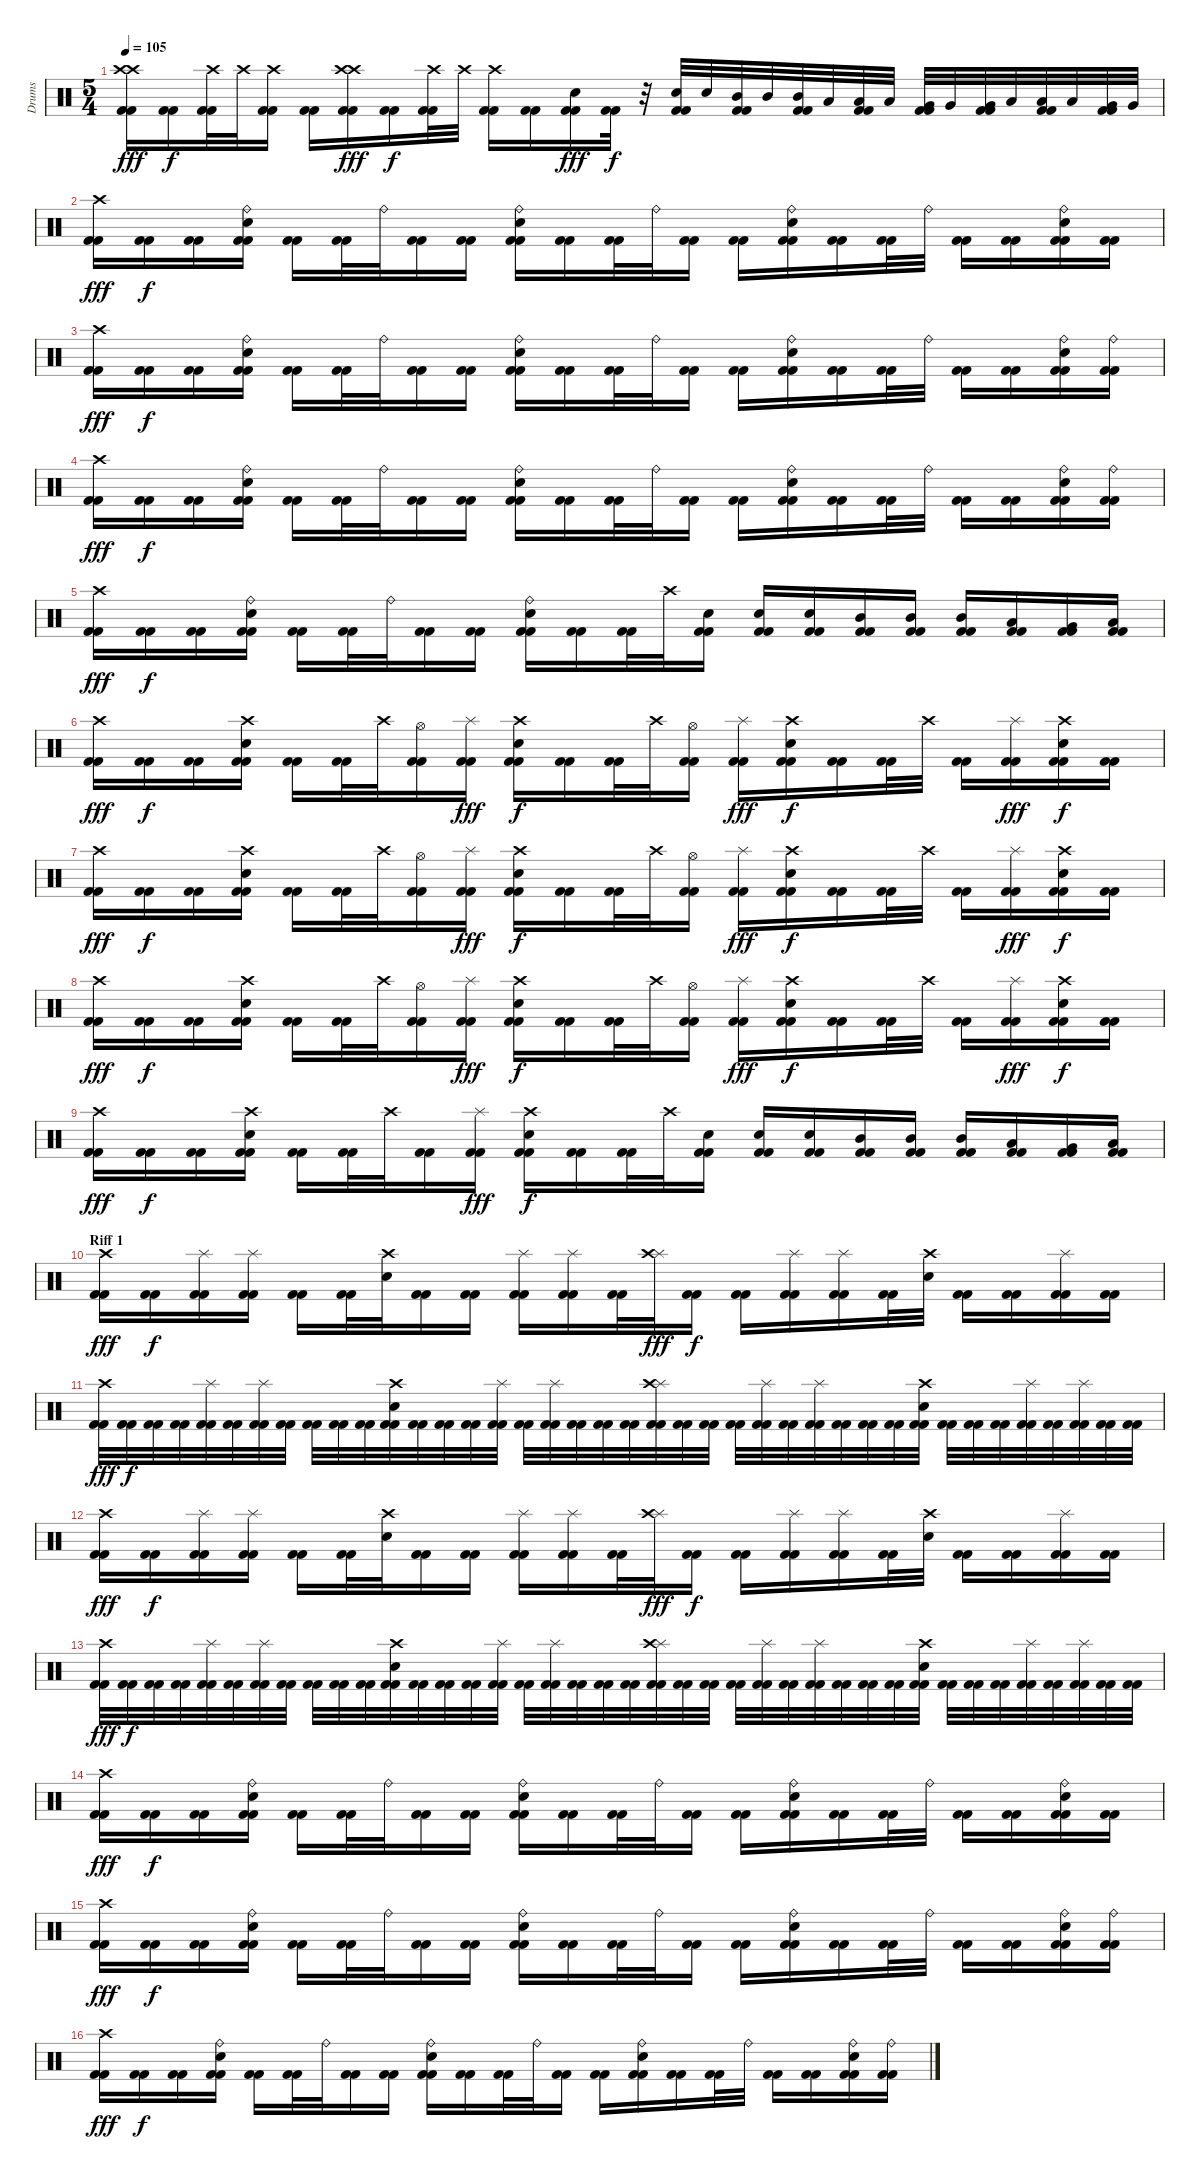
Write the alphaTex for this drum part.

\track ("Drums" "Drums") {instrument percussion}
\staff {score}
\articulation defaults
\ts (5 4)
\tempo 105
\clef neutral
\ks c
("Crash high (hit)" "Crash high (hit)" "Kick (hit) 2" "Kick (hit) 2").16{dy fff} ("Kick (hit) 2" "Kick (hit) 2").16{dy f} ("Crash high (hit)" "Kick (hit) 2" "Kick (hit) 2").32 "Crash high (hit)".32 ("Crash high (hit)" "Kick (hit) 2" "Kick (hit) 2").16 ("Kick (hit) 2" "Kick (hit) 2").16 ("Crash high (hit)" "Crash high (hit)" "Kick (hit) 2" "Kick (hit) 2").16{dy fff} ("Kick (hit) 2" "Kick (hit) 2").16{dy f} ("Crash high (hit)" "Kick (hit) 2" "Kick (hit) 2").32 "Crash high (hit)".32 ("Crash high (hit)" "Kick (hit) 2" "Kick (hit) 2").16 ("Kick (hit) 2" "Kick (hit) 2").16 ("Electric Snare (hit)" "Kick (hit) 2" "Kick (hit) 2").16{dy fff} ("Kick (hit) 2" "Kick (hit) 2").32{dy f} r.32 ("Electric Snare (hit)" "Kick (hit) 2" "Kick (hit) 2").32 "Electric Snare (hit)".32 ("Mid Tom (hit)" "Kick (hit) 2" "Kick (hit) 2").32 "Mid Tom (hit)".32 ("Mid Tom (hit)" "Kick (hit) 2" "Kick (hit) 2").32 "Low Tom (hit)".32 ("Low Tom (hit)" "Kick (hit) 2" "Kick (hit) 2").32 "Low Tom (hit)".32 ("Very Low Tom (hit)" "Kick (hit) 2" "Kick (hit) 2").32 "Very Low Tom (hit)".32 ("Very Low Tom (hit)" "Kick (hit) 2" "Kick (hit) 2").32 "Low Floor Tom (hit)".32 ("Low Floor Tom (hit)" "Kick (hit) 2" "Kick (hit) 2").32 "Low Floor Tom (hit)".32 ("Very Low Tom (hit)" "Kick (hit) 2" "Kick (hit) 2").32 "Very Low Tom (hit)".32 |
("Crash high (hit)" "Kick (hit) 2" "Kick (hit) 2").16{dy fff} ("Kick (hit) 2" "Kick (hit) 2").16{dy f} ("Kick (hit) 2" "Kick (hit) 2").16 ("Ride (bell)" "Electric Snare (hit)" "Kick (hit) 2" "Kick (hit) 2").16 ("Kick (hit) 2" "Kick (hit) 2").16 ("Kick (hit) 2" "Kick (hit) 2").32 "Ride (bell)".32 ("Kick (hit) 2" "Kick (hit) 2").16 ("Kick (hit) 2" "Kick (hit) 2").16 ("Ride (bell)" "Electric Snare (hit)" "Kick (hit) 2" "Kick (hit) 2").16 ("Kick (hit) 2" "Kick (hit) 2").16 ("Kick (hit) 2" "Kick (hit) 2").32 "Ride (bell)".32 ("Kick (hit) 2" "Kick (hit) 2").16 ("Kick (hit) 2" "Kick (hit) 2").16 ("Ride (bell)" "Electric Snare (hit)" "Kick (hit) 2" "Kick (hit) 2").16 ("Kick (hit) 2" "Kick (hit) 2").16 ("Kick (hit) 2" "Kick (hit) 2").32 "Ride (bell)".32 ("Kick (hit) 2" "Kick (hit) 2").16 ("Kick (hit) 2" "Kick (hit) 2").16 ("Ride (bell)" "Electric Snare (hit)" "Kick (hit) 2" "Kick (hit) 2").16 ("Kick (hit) 2" "Kick (hit) 2").16 |
("Crash high (hit)" "Kick (hit) 2" "Kick (hit) 2").16{dy fff} ("Kick (hit) 2" "Kick (hit) 2").16{dy f} ("Kick (hit) 2" "Kick (hit) 2").16 ("Ride (bell)" "Electric Snare (hit)" "Kick (hit) 2" "Kick (hit) 2").16 ("Kick (hit) 2" "Kick (hit) 2").16 ("Kick (hit) 2" "Kick (hit) 2").32 "Ride (bell)".32 ("Kick (hit) 2" "Kick (hit) 2").16 ("Kick (hit) 2" "Kick (hit) 2").16 ("Ride (bell)" "Electric Snare (hit)" "Kick (hit) 2" "Kick (hit) 2").16 ("Kick (hit) 2" "Kick (hit) 2").16 ("Kick (hit) 2" "Kick (hit) 2").32 "Ride (bell)".32 ("Kick (hit) 2" "Kick (hit) 2").16 ("Kick (hit) 2" "Kick (hit) 2").16 ("Ride (bell)" "Electric Snare (hit)" "Kick (hit) 2" "Kick (hit) 2").16 ("Kick (hit) 2" "Kick (hit) 2").16 ("Kick (hit) 2" "Kick (hit) 2").32 "Ride (bell)".32 ("Kick (hit) 2" "Kick (hit) 2").16 ("Kick (hit) 2" "Kick (hit) 2").16 ("Ride (bell)" "Electric Snare (hit)" "Kick (hit) 2" "Kick (hit) 2").16 ("Ride (bell)" "Kick (hit) 2" "Kick (hit) 2").16 |
("Crash high (hit)" "Kick (hit) 2" "Kick (hit) 2").16{dy fff} ("Kick (hit) 2" "Kick (hit) 2").16{dy f} ("Kick (hit) 2" "Kick (hit) 2").16 ("Ride (bell)" "Electric Snare (hit)" "Kick (hit) 2" "Kick (hit) 2").16 ("Kick (hit) 2" "Kick (hit) 2").16 ("Kick (hit) 2" "Kick (hit) 2").32 "Ride (bell)".32 ("Kick (hit) 2" "Kick (hit) 2").16 ("Kick (hit) 2" "Kick (hit) 2").16 ("Ride (bell)" "Electric Snare (hit)" "Kick (hit) 2" "Kick (hit) 2").16 ("Kick (hit) 2" "Kick (hit) 2").16 ("Kick (hit) 2" "Kick (hit) 2").32 "Ride (bell)".32 ("Kick (hit) 2" "Kick (hit) 2").16 ("Kick (hit) 2" "Kick (hit) 2").16 ("Ride (bell)" "Electric Snare (hit)" "Kick (hit) 2" "Kick (hit) 2").16 ("Kick (hit) 2" "Kick (hit) 2").16 ("Kick (hit) 2" "Kick (hit) 2").32 "Ride (bell)".32 ("Kick (hit) 2" "Kick (hit) 2").16 ("Kick (hit) 2" "Kick (hit) 2").16 ("Ride (bell)" "Electric Snare (hit)" "Kick (hit) 2" "Kick (hit) 2").16 ("Ride (bell)" "Kick (hit) 2" "Kick (hit) 2").16 |
("Crash high (hit)" "Kick (hit) 2" "Kick (hit) 2").16{dy fff} ("Kick (hit) 2" "Kick (hit) 2").16{dy f} ("Kick (hit) 2" "Kick (hit) 2").16 ("Ride (bell)" "Electric Snare (hit)" "Kick (hit) 2" "Kick (hit) 2").16 ("Kick (hit) 2" "Kick (hit) 2").16 ("Kick (hit) 2" "Kick (hit) 2").32 "Ride (bell)".32 ("Kick (hit) 2" "Kick (hit) 2").16 ("Kick (hit) 2" "Kick (hit) 2").16 ("Ride (bell)" "Electric Snare (hit)" "Kick (hit) 2" "Kick (hit) 2").16 ("Kick (hit) 2" "Kick (hit) 2").16 ("Kick (hit) 2" "Kick (hit) 2").32 "Crash high (hit)".32 ("Electric Snare (hit)" "Kick (hit) 2" "Kick (hit) 2").16 ("Electric Snare (hit)" "Kick (hit) 2" "Kick (hit) 2").16 ("Electric Snare (hit)" "Kick (hit) 2" "Kick (hit) 2").16 ("Mid Tom (hit)" "Kick (hit) 2" "Kick (hit) 2").16 ("Mid Tom (hit)" "Kick (hit) 2" "Kick (hit) 2").16 ("Mid Tom (hit)" "Kick (hit) 2" "Kick (hit) 2").16 ("Low Tom (hit)" "Kick (hit) 2" "Kick (hit) 2").16 ("Very Low Tom (hit)" "Kick (hit) 2" "Kick (hit) 2").16 ("Low Floor Tom (hit)" "Kick (hit) 2" "Kick (hit) 2").16 |
("Crash high (hit)" "Kick (hit) 2" "Kick (hit) 2").16{dy fff} ("Kick (hit) 2" "Kick (hit) 2").16{dy f} ("Kick (hit) 2" "Kick (hit) 2").16 ("Crash high (hit)" "Electric Snare (hit)" "Kick (hit) 2" "Kick (hit) 2").16 ("Kick (hit) 2" "Kick (hit) 2").16 ("Kick (hit) 2" "Kick (hit) 2").32 "Crash high (hit)".32 ("Hi-Hat (open)" "Kick (hit) 2" "Kick (hit) 2").16 ("Splash (hit)" "Kick (hit) 2" "Kick (hit) 2").16{dy fff} ("Crash high (hit)" "Electric Snare (hit)" "Kick (hit) 2" "Kick (hit) 2").16{dy f} ("Kick (hit) 2" "Kick (hit) 2").16 ("Kick (hit) 2" "Kick (hit) 2").32 "Crash high (hit)".32 ("Hi-Hat (open)" "Kick (hit) 2" "Kick (hit) 2").16 ("Splash (hit)" "Kick (hit) 2" "Kick (hit) 2").16{dy fff} ("Crash high (hit)" "Electric Snare (hit)" "Kick (hit) 2" "Kick (hit) 2").16{dy f} ("Kick (hit) 2" "Kick (hit) 2").16 ("Kick (hit) 2" "Kick (hit) 2").32 "Crash high (hit)".32 ("Kick (hit) 2" "Kick (hit) 2").16 ("Splash (hit)" "Kick (hit) 2" "Kick (hit) 2").16{dy fff} ("Crash high (hit)" "Electric Snare (hit)" "Kick (hit) 2" "Kick (hit) 2").16{dy f} ("Kick (hit) 2" "Kick (hit) 2").16 |
("Crash high (hit)" "Kick (hit) 2" "Kick (hit) 2").16{dy fff} ("Kick (hit) 2" "Kick (hit) 2").16{dy f} ("Kick (hit) 2" "Kick (hit) 2").16 ("Crash high (hit)" "Electric Snare (hit)" "Kick (hit) 2" "Kick (hit) 2").16 ("Kick (hit) 2" "Kick (hit) 2").16 ("Kick (hit) 2" "Kick (hit) 2").32 "Crash high (hit)".32 ("Hi-Hat (open)" "Kick (hit) 2" "Kick (hit) 2").16 ("Splash (hit)" "Kick (hit) 2" "Kick (hit) 2").16{dy fff} ("Crash high (hit)" "Electric Snare (hit)" "Kick (hit) 2" "Kick (hit) 2").16{dy f} ("Kick (hit) 2" "Kick (hit) 2").16 ("Kick (hit) 2" "Kick (hit) 2").32 "Crash high (hit)".32 ("Hi-Hat (open)" "Kick (hit) 2" "Kick (hit) 2").16 ("Splash (hit)" "Kick (hit) 2" "Kick (hit) 2").16{dy fff} ("Crash high (hit)" "Electric Snare (hit)" "Kick (hit) 2" "Kick (hit) 2").16{dy f} ("Kick (hit) 2" "Kick (hit) 2").16 ("Kick (hit) 2" "Kick (hit) 2").32 "Crash high (hit)".32 ("Kick (hit) 2" "Kick (hit) 2").16 ("Splash (hit)" "Kick (hit) 2" "Kick (hit) 2").16{dy fff} ("Crash high (hit)" "Electric Snare (hit)" "Kick (hit) 2" "Kick (hit) 2").16{dy f} ("Kick (hit) 2" "Kick (hit) 2").16 |
("Crash high (hit)" "Kick (hit) 2" "Kick (hit) 2").16{dy fff} ("Kick (hit) 2" "Kick (hit) 2").16{dy f} ("Kick (hit) 2" "Kick (hit) 2").16 ("Crash high (hit)" "Electric Snare (hit)" "Kick (hit) 2" "Kick (hit) 2").16 ("Kick (hit) 2" "Kick (hit) 2").16 ("Kick (hit) 2" "Kick (hit) 2").32 "Crash high (hit)".32 ("Hi-Hat (open)" "Kick (hit) 2" "Kick (hit) 2").16 ("Splash (hit)" "Kick (hit) 2" "Kick (hit) 2").16{dy fff} ("Crash high (hit)" "Electric Snare (hit)" "Kick (hit) 2" "Kick (hit) 2").16{dy f} ("Kick (hit) 2" "Kick (hit) 2").16 ("Kick (hit) 2" "Kick (hit) 2").32 "Crash high (hit)".32 ("Hi-Hat (open)" "Kick (hit) 2" "Kick (hit) 2").16 ("Splash (hit)" "Kick (hit) 2" "Kick (hit) 2").16{dy fff} ("Crash high (hit)" "Electric Snare (hit)" "Kick (hit) 2" "Kick (hit) 2").16{dy f} ("Kick (hit) 2" "Kick (hit) 2").16 ("Kick (hit) 2" "Kick (hit) 2").32 "Crash high (hit)".32 ("Kick (hit) 2" "Kick (hit) 2").16 ("Splash (hit)" "Kick (hit) 2" "Kick (hit) 2").16{dy fff} ("Crash high (hit)" "Electric Snare (hit)" "Kick (hit) 2" "Kick (hit) 2").16{dy f} ("Kick (hit) 2" "Kick (hit) 2").16 |
("Crash high (hit)" "Kick (hit) 2" "Kick (hit) 2").16{dy fff} ("Kick (hit) 2" "Kick (hit) 2").16{dy f} ("Kick (hit) 2" "Kick (hit) 2").16 ("Crash high (hit)" "Electric Snare (hit)" "Kick (hit) 2" "Kick (hit) 2").16 ("Kick (hit) 2" "Kick (hit) 2").16 ("Kick (hit) 2" "Kick (hit) 2").32 "Crash high (hit)".32 ("Kick (hit) 2" "Kick (hit) 2").16 ("Splash (hit)" "Kick (hit) 2" "Kick (hit) 2").16{dy fff} ("Crash high (hit)" "Electric Snare (hit)" "Kick (hit) 2" "Kick (hit) 2").16{dy f} ("Kick (hit) 2" "Kick (hit) 2").16 ("Kick (hit) 2" "Kick (hit) 2").32 "Crash high (hit)".32 ("Electric Snare (hit)" "Kick (hit) 2" "Kick (hit) 2").16 ("Electric Snare (hit)" "Kick (hit) 2" "Kick (hit) 2").16 ("Electric Snare (hit)" "Kick (hit) 2" "Kick (hit) 2").16 ("Mid Tom (hit)" "Kick (hit) 2" "Kick (hit) 2").16 ("Mid Tom (hit)" "Kick (hit) 2" "Kick (hit) 2").16 ("Mid Tom (hit)" "Kick (hit) 2" "Kick (hit) 2").16 ("Low Tom (hit)" "Kick (hit) 2" "Kick (hit) 2").16 ("Very Low Tom (hit)" "Kick (hit) 2" "Kick (hit) 2").16 ("Low Floor Tom (hit)" "Kick (hit) 2" "Kick (hit) 2").16 |
\section ("" "Riff 1")
("Crash high (hit)" "Kick (hit) 2" "Kick (hit) 2").16{dy fff} ("Kick (hit) 2" "Kick (hit) 2").16{dy f} ("Splash (hit)" "Kick (hit) 2" "Kick (hit) 2").16 ("Splash (hit)" "Kick (hit) 2" "Kick (hit) 2").16 ("Kick (hit) 2" "Kick (hit) 2").16 ("Kick (hit) 2" "Kick (hit) 2").32 ("Crash high (hit)" "Electric Snare (hit)").32 ("Kick (hit) 2" "Kick (hit) 2").16 ("Kick (hit) 2" "Kick (hit) 2").16 ("Splash (hit)" "Kick (hit) 2" "Kick (hit) 2").16 ("Splash (hit)" "Kick (hit) 2" "Kick (hit) 2").16 ("Kick (hit) 2" "Kick (hit) 2").32 ("Splash (hit)" "Crash high (hit)").32{dy fff} ("Kick (hit) 2" "Kick (hit) 2").16{dy f} ("Kick (hit) 2" "Kick (hit) 2").16 ("Splash (hit)" "Kick (hit) 2" "Kick (hit) 2").16 ("Splash (hit)" "Kick (hit) 2" "Kick (hit) 2").16 ("Kick (hit) 2" "Kick (hit) 2").32 ("Crash high (hit)" "Electric Snare (hit)").32 ("Kick (hit) 2" "Kick (hit) 2").16 ("Kick (hit) 2" "Kick (hit) 2").16 ("Splash (hit)" "Kick (hit) 2" "Kick (hit) 2").16 ("Kick (hit) 2" "Kick (hit) 2").16 |
("Crash high (hit)" "Kick (hit) 2" "Kick (hit) 2").32{dy fff} ("Kick (hit) 2" "Kick (hit) 2").32{dy f} ("Kick (hit) 2" "Kick (hit) 2").32 ("Kick (hit) 2" "Kick (hit) 2").32 ("Splash (hit)" "Kick (hit) 2" "Kick (hit) 2").32 ("Kick (hit) 2" "Kick (hit) 2").32 ("Splash (hit)" "Kick (hit) 2" "Kick (hit) 2").32 ("Kick (hit) 2" "Kick (hit) 2").32 ("Kick (hit) 2" "Kick (hit) 2").32 ("Kick (hit) 2" "Kick (hit) 2").32 ("Kick (hit) 2" "Kick (hit) 2").32 ("Crash high (hit)" "Electric Snare (hit)" "Kick (hit) 2" "Kick (hit) 2").32 ("Kick (hit) 2" "Kick (hit) 2").32 ("Kick (hit) 2" "Kick (hit) 2").32 ("Kick (hit) 2" "Kick (hit) 2").32 ("Splash (hit)" "Kick (hit) 2" "Kick (hit) 2").32 ("Kick (hit) 2" "Kick (hit) 2").32 ("Splash (hit)" "Kick (hit) 2" "Kick (hit) 2").32 ("Kick (hit) 2" "Kick (hit) 2").32 ("Kick (hit) 2" "Kick (hit) 2").32 ("Kick (hit) 2" "Kick (hit) 2").32 ("Splash (hit)" "Crash high (hit)" "Kick (hit) 2" "Kick (hit) 2").32 ("Kick (hit) 2" "Kick (hit) 2").32 ("Kick (hit) 2" "Kick (hit) 2").32 ("Kick (hit) 2" "Kick (hit) 2").32 ("Splash (hit)" "Kick (hit) 2" "Kick (hit) 2").32 ("Kick (hit) 2" "Kick (hit) 2").32 ("Splash (hit)" "Kick (hit) 2" "Kick (hit) 2").32 ("Kick (hit) 2" "Kick (hit) 2").32 ("Kick (hit) 2" "Kick (hit) 2").32 ("Kick (hit) 2" "Kick (hit) 2").32 ("Crash high (hit)" "Electric Snare (hit)" "Kick (hit) 2" "Kick (hit) 2").32 ("Kick (hit) 2" "Kick (hit) 2").32 ("Kick (hit) 2" "Kick (hit) 2").32 ("Kick (hit) 2" "Kick (hit) 2").32 ("Splash (hit)" "Kick (hit) 2" "Kick (hit) 2").32 ("Kick (hit) 2" "Kick (hit) 2").32 ("Splash (hit)" "Kick (hit) 2" "Kick (hit) 2").32 ("Kick (hit) 2" "Kick (hit) 2").32 ("Kick (hit) 2" "Kick (hit) 2").32 |
("Crash high (hit)" "Kick (hit) 2" "Kick (hit) 2").16{dy fff} ("Kick (hit) 2" "Kick (hit) 2").16{dy f} ("Splash (hit)" "Kick (hit) 2" "Kick (hit) 2").16 ("Splash (hit)" "Kick (hit) 2" "Kick (hit) 2").16 ("Kick (hit) 2" "Kick (hit) 2").16 ("Kick (hit) 2" "Kick (hit) 2").32 ("Crash high (hit)" "Electric Snare (hit)").32 ("Kick (hit) 2" "Kick (hit) 2").16 ("Kick (hit) 2" "Kick (hit) 2").16 ("Splash (hit)" "Kick (hit) 2" "Kick (hit) 2").16 ("Splash (hit)" "Kick (hit) 2" "Kick (hit) 2").16 ("Kick (hit) 2" "Kick (hit) 2").32 ("Splash (hit)" "Crash high (hit)").32{dy fff} ("Kick (hit) 2" "Kick (hit) 2").16{dy f} ("Kick (hit) 2" "Kick (hit) 2").16 ("Splash (hit)" "Kick (hit) 2" "Kick (hit) 2").16 ("Splash (hit)" "Kick (hit) 2" "Kick (hit) 2").16 ("Kick (hit) 2" "Kick (hit) 2").32 ("Crash high (hit)" "Electric Snare (hit)").32 ("Kick (hit) 2" "Kick (hit) 2").16 ("Kick (hit) 2" "Kick (hit) 2").16 ("Splash (hit)" "Kick (hit) 2" "Kick (hit) 2").16 ("Kick (hit) 2" "Kick (hit) 2").16 |
("Crash high (hit)" "Kick (hit) 2" "Kick (hit) 2").32{dy fff} ("Kick (hit) 2" "Kick (hit) 2").32{dy f} ("Kick (hit) 2" "Kick (hit) 2").32 ("Kick (hit) 2" "Kick (hit) 2").32 ("Splash (hit)" "Kick (hit) 2" "Kick (hit) 2").32 ("Kick (hit) 2" "Kick (hit) 2").32 ("Splash (hit)" "Kick (hit) 2" "Kick (hit) 2").32 ("Kick (hit) 2" "Kick (hit) 2").32 ("Kick (hit) 2" "Kick (hit) 2").32 ("Kick (hit) 2" "Kick (hit) 2").32 ("Kick (hit) 2" "Kick (hit) 2").32 ("Crash high (hit)" "Electric Snare (hit)" "Kick (hit) 2" "Kick (hit) 2").32 ("Kick (hit) 2" "Kick (hit) 2").32 ("Kick (hit) 2" "Kick (hit) 2").32 ("Kick (hit) 2" "Kick (hit) 2").32 ("Splash (hit)" "Kick (hit) 2" "Kick (hit) 2").32 ("Kick (hit) 2" "Kick (hit) 2").32 ("Splash (hit)" "Kick (hit) 2" "Kick (hit) 2").32 ("Kick (hit) 2" "Kick (hit) 2").32 ("Kick (hit) 2" "Kick (hit) 2").32 ("Kick (hit) 2" "Kick (hit) 2").32 ("Splash (hit)" "Crash high (hit)" "Kick (hit) 2" "Kick (hit) 2").32 ("Kick (hit) 2" "Kick (hit) 2").32 ("Kick (hit) 2" "Kick (hit) 2").32 ("Kick (hit) 2" "Kick (hit) 2").32 ("Splash (hit)" "Kick (hit) 2" "Kick (hit) 2").32 ("Kick (hit) 2" "Kick (hit) 2").32 ("Splash (hit)" "Kick (hit) 2" "Kick (hit) 2").32 ("Kick (hit) 2" "Kick (hit) 2").32 ("Kick (hit) 2" "Kick (hit) 2").32 ("Kick (hit) 2" "Kick (hit) 2").32 ("Crash high (hit)" "Electric Snare (hit)" "Kick (hit) 2" "Kick (hit) 2").32 ("Kick (hit) 2" "Kick (hit) 2").32 ("Kick (hit) 2" "Kick (hit) 2").32 ("Kick (hit) 2" "Kick (hit) 2").32 ("Splash (hit)" "Kick (hit) 2" "Kick (hit) 2").32 ("Kick (hit) 2" "Kick (hit) 2").32 ("Splash (hit)" "Kick (hit) 2" "Kick (hit) 2").32 ("Kick (hit) 2" "Kick (hit) 2").32 ("Kick (hit) 2" "Kick (hit) 2").32 |
("Crash high (hit)" "Kick (hit) 2" "Kick (hit) 2").16{dy fff} ("Kick (hit) 2" "Kick (hit) 2").16{dy f} ("Kick (hit) 2" "Kick (hit) 2").16 ("Ride (bell)" "Electric Snare (hit)" "Kick (hit) 2" "Kick (hit) 2").16 ("Kick (hit) 2" "Kick (hit) 2").16 ("Kick (hit) 2" "Kick (hit) 2").32 "Ride (bell)".32 ("Kick (hit) 2" "Kick (hit) 2").16 ("Kick (hit) 2" "Kick (hit) 2").16 ("Ride (bell)" "Electric Snare (hit)" "Kick (hit) 2" "Kick (hit) 2").16 ("Kick (hit) 2" "Kick (hit) 2").16 ("Kick (hit) 2" "Kick (hit) 2").32 "Ride (bell)".32 ("Kick (hit) 2" "Kick (hit) 2").16 ("Kick (hit) 2" "Kick (hit) 2").16 ("Ride (bell)" "Electric Snare (hit)" "Kick (hit) 2" "Kick (hit) 2").16 ("Kick (hit) 2" "Kick (hit) 2").16 ("Kick (hit) 2" "Kick (hit) 2").32 "Ride (bell)".32 ("Kick (hit) 2" "Kick (hit) 2").16 ("Kick (hit) 2" "Kick (hit) 2").16 ("Ride (bell)" "Electric Snare (hit)" "Kick (hit) 2" "Kick (hit) 2").16 ("Kick (hit) 2" "Kick (hit) 2").16 |
("Crash high (hit)" "Kick (hit) 2" "Kick (hit) 2").16{dy fff} ("Kick (hit) 2" "Kick (hit) 2").16{dy f} ("Kick (hit) 2" "Kick (hit) 2").16 ("Ride (bell)" "Electric Snare (hit)" "Kick (hit) 2" "Kick (hit) 2").16 ("Kick (hit) 2" "Kick (hit) 2").16 ("Kick (hit) 2" "Kick (hit) 2").32 "Ride (bell)".32 ("Kick (hit) 2" "Kick (hit) 2").16 ("Kick (hit) 2" "Kick (hit) 2").16 ("Ride (bell)" "Electric Snare (hit)" "Kick (hit) 2" "Kick (hit) 2").16 ("Kick (hit) 2" "Kick (hit) 2").16 ("Kick (hit) 2" "Kick (hit) 2").32 "Ride (bell)".32 ("Kick (hit) 2" "Kick (hit) 2").16 ("Kick (hit) 2" "Kick (hit) 2").16 ("Ride (bell)" "Electric Snare (hit)" "Kick (hit) 2" "Kick (hit) 2").16 ("Kick (hit) 2" "Kick (hit) 2").16 ("Kick (hit) 2" "Kick (hit) 2").32 "Ride (bell)".32 ("Kick (hit) 2" "Kick (hit) 2").16 ("Kick (hit) 2" "Kick (hit) 2").16 ("Ride (bell)" "Electric Snare (hit)" "Kick (hit) 2" "Kick (hit) 2").16 ("Ride (bell)" "Kick (hit) 2" "Kick (hit) 2").16 |
("Crash high (hit)" "Kick (hit) 2" "Kick (hit) 2").16{dy fff} ("Kick (hit) 2" "Kick (hit) 2").16{dy f} ("Kick (hit) 2" "Kick (hit) 2").16 ("Ride (bell)" "Electric Snare (hit)" "Kick (hit) 2" "Kick (hit) 2").16 ("Kick (hit) 2" "Kick (hit) 2").16 ("Kick (hit) 2" "Kick (hit) 2").32 "Ride (bell)".32 ("Kick (hit) 2" "Kick (hit) 2").16 ("Kick (hit) 2" "Kick (hit) 2").16 ("Ride (bell)" "Electric Snare (hit)" "Kick (hit) 2" "Kick (hit) 2").16 ("Kick (hit) 2" "Kick (hit) 2").16 ("Kick (hit) 2" "Kick (hit) 2").32 "Ride (bell)".32 ("Kick (hit) 2" "Kick (hit) 2").16 ("Kick (hit) 2" "Kick (hit) 2").16 ("Ride (bell)" "Electric Snare (hit)" "Kick (hit) 2" "Kick (hit) 2").16 ("Kick (hit) 2" "Kick (hit) 2").16 ("Kick (hit) 2" "Kick (hit) 2").32 "Ride (bell)".32 ("Kick (hit) 2" "Kick (hit) 2").16 ("Kick (hit) 2" "Kick (hit) 2").16 ("Ride (bell)" "Electric Snare (hit)" "Kick (hit) 2" "Kick (hit) 2").16 ("Ride (bell)" "Kick (hit) 2" "Kick (hit) 2").16
